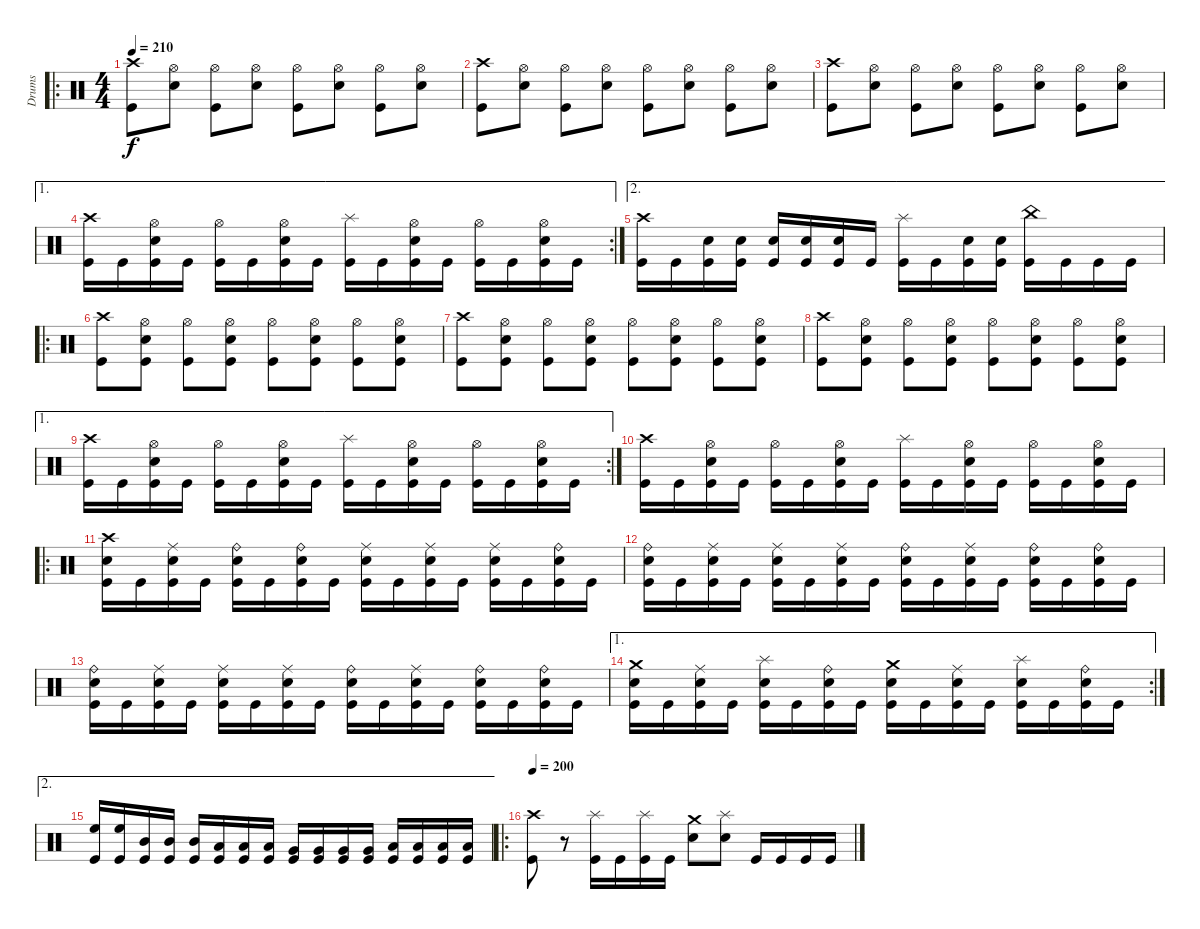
\track ("Drums" "Drums") {instrument percussion}
\staff {score}
\articulation defaults
\ro
\ts (4 4)
\tempo 210
\clef neutral
\ks c
("Crash high (hit)" "Kick (hit)").8{dy f} ("Hi-Hat (open)" "Electric Snare (hit)").8 ("Hi-Hat (open)" "Kick (hit)").8 ("Hi-Hat (open)" "Electric Snare (hit)").8 ("Hi-Hat (open)" "Kick (hit)").8 ("Hi-Hat (open)" "Electric Snare (hit)").8 ("Hi-Hat (open)" "Kick (hit)").8 ("Hi-Hat (open)" "Electric Snare (hit)").8 |
("Crash high (hit)" "Kick (hit)").8 ("Hi-Hat (open)" "Electric Snare (hit)").8 ("Hi-Hat (open)" "Kick (hit)").8 ("Hi-Hat (open)" "Electric Snare (hit)").8 ("Hi-Hat (open)" "Kick (hit)").8 ("Hi-Hat (open)" "Electric Snare (hit)").8 ("Hi-Hat (open)" "Kick (hit)").8 ("Hi-Hat (open)" "Electric Snare (hit)").8 |
("Crash high (hit)" "Kick (hit)").8 ("Hi-Hat (open)" "Electric Snare (hit)").8 ("Hi-Hat (open)" "Kick (hit)").8 ("Hi-Hat (open)" "Electric Snare (hit)").8 ("Hi-Hat (open)" "Kick (hit)").8 ("Hi-Hat (open)" "Electric Snare (hit)").8 ("Hi-Hat (open)" "Kick (hit)").8 ("Hi-Hat (open)" "Electric Snare (hit)").8 |
\ae 1
\rc 2
("Crash high (hit)" "Kick (hit)").16 "Kick (hit)".16 ("Hi-Hat (open)" "Electric Snare (hit)" "Kick (hit)").16 "Kick (hit)".16 ("Hi-Hat (open)" "Kick (hit)").16 "Kick (hit)".16 ("Hi-Hat (open)" "Electric Snare (hit)" "Kick (hit)").16 "Kick (hit)".16 ("Splash (hit)" "Kick (hit)").16 "Kick (hit)".16 ("Hi-Hat (open)" "Electric Snare (hit)" "Kick (hit)").16 "Kick (hit)".16 ("Hi-Hat (open)" "Kick (hit)").16 "Kick (hit)".16 ("Hi-Hat (open)" "Electric Snare (hit)" "Kick (hit)").16 "Kick (hit)".16 |
\ae 2
("Crash high (hit)" "Kick (hit)").16 "Kick (hit)".16 ("Electric Snare (hit)" "Kick (hit)").16 ("Electric Snare (hit)" "Kick (hit)").16 ("Electric Snare (hit)" "Kick (hit)").16 ("Electric Snare (hit)" "Kick (hit)").16 ("Electric Snare (hit)" "Kick (hit)").16 "Kick (hit)".16 ("Splash (hit)" "Kick (hit)").16 "Kick (hit)".16 ("Electric Snare (hit)" "Kick (hit)").16 ("Electric Snare (hit)" "Kick (hit)").16 ("China (hit)" "Kick (hit)").16 "Kick (hit)".16 "Kick (hit)".16 "Kick (hit)".16 |
\ro
("Crash high (hit)" "Kick (hit)").8 ("Hi-Hat (open)" "Electric Snare (hit)" "Kick (hit)").8 ("Hi-Hat (open)" "Kick (hit)").8 ("Hi-Hat (open)" "Electric Snare (hit)" "Kick (hit)").8 ("Hi-Hat (open)" "Kick (hit)").8 ("Hi-Hat (open)" "Electric Snare (hit)" "Kick (hit)").8 ("Hi-Hat (open)" "Kick (hit)").8 ("Hi-Hat (open)" "Electric Snare (hit)" "Kick (hit)").8 |
("Crash high (hit)" "Kick (hit)").8 ("Hi-Hat (open)" "Electric Snare (hit)" "Kick (hit)").8 ("Hi-Hat (open)" "Kick (hit)").8 ("Hi-Hat (open)" "Electric Snare (hit)" "Kick (hit)").8 ("Hi-Hat (open)" "Kick (hit)").8 ("Hi-Hat (open)" "Electric Snare (hit)" "Kick (hit)").8 ("Hi-Hat (open)" "Kick (hit)").8 ("Hi-Hat (open)" "Electric Snare (hit)" "Kick (hit)").8 |
("Crash high (hit)" "Kick (hit)").8 ("Hi-Hat (open)" "Electric Snare (hit)" "Kick (hit)").8 ("Hi-Hat (open)" "Kick (hit)").8 ("Hi-Hat (open)" "Electric Snare (hit)" "Kick (hit)").8 ("Hi-Hat (open)" "Kick (hit)").8 ("Hi-Hat (open)" "Electric Snare (hit)" "Kick (hit)").8 ("Hi-Hat (open)" "Kick (hit)").8 ("Hi-Hat (open)" "Electric Snare (hit)" "Kick (hit)").8 |
\ae 1
\rc 2
("Crash high (hit)" "Kick (hit)").16 "Kick (hit)".16 ("Hi-Hat (open)" "Electric Snare (hit)" "Kick (hit)").16 "Kick (hit)".16 ("Hi-Hat (open)" "Kick (hit)").16 "Kick (hit)".16 ("Hi-Hat (open)" "Electric Snare (hit)" "Kick (hit)").16 "Kick (hit)".16 ("Splash (hit)" "Kick (hit)").16 "Kick (hit)".16 ("Hi-Hat (open)" "Electric Snare (hit)" "Kick (hit)").16 "Kick (hit)".16 ("Hi-Hat (open)" "Kick (hit)").16 "Kick (hit)".16 ("Hi-Hat (open)" "Electric Snare (hit)" "Kick (hit)").16 "Kick (hit)".16 |
("Crash high (hit)" "Kick (hit)").16 "Kick (hit)".16 ("Hi-Hat (open)" "Electric Snare (hit)" "Kick (hit)").16 "Kick (hit)".16 ("Hi-Hat (open)" "Kick (hit)").16 "Kick (hit)".16 ("Hi-Hat (open)" "Electric Snare (hit)" "Kick (hit)").16 "Kick (hit)".16 ("Splash (hit)" "Kick (hit)").16 "Kick (hit)".16 ("Hi-Hat (open)" "Electric Snare (hit)" "Kick (hit)").16 "Kick (hit)".16 ("Hi-Hat (open)" "Kick (hit)").16 "Kick (hit)".16 ("Hi-Hat (open)" "Electric Snare (hit)" "Kick (hit)").16 "Kick (hit)".16 |
\ro
("Crash high (hit)" "Electric Snare (hit)" "Kick (hit)").16 "Kick (hit)".16 ("Ride (middle)" "Electric Snare (hit)" "Kick (hit)").16 "Kick (hit)".16 ("Ride (bell)" "Electric Snare (hit)" "Kick (hit)").16 "Kick (hit)".16 ("Ride (bell)" "Electric Snare (hit)" "Kick (hit)").16 "Kick (hit)".16 ("Ride (middle)" "Electric Snare (hit)" "Kick (hit)").16 "Kick (hit)".16 ("Ride (middle)" "Electric Snare (hit)" "Kick (hit)").16 "Kick (hit)".16 ("Ride (middle)" "Electric Snare (hit)" "Kick (hit)").16 "Kick (hit)".16 ("Ride (bell)" "Electric Snare (hit)" "Kick (hit)").16 "Kick (hit)".16 |
("Ride (bell)" "Electric Snare (hit)" "Kick (hit)").16 "Kick (hit)".16 ("Ride (middle)" "Electric Snare (hit)" "Kick (hit)").16 "Kick (hit)".16 ("Ride (middle)" "Electric Snare (hit)" "Kick (hit)").16 "Kick (hit)".16 ("Ride (middle)" "Electric Snare (hit)" "Kick (hit)").16 "Kick (hit)".16 ("Ride (bell)" "Electric Snare (hit)" "Kick (hit)").16 "Kick (hit)".16 ("Ride (middle)" "Electric Snare (hit)" "Kick (hit)").16 "Kick (hit)".16 ("Ride (bell)" "Electric Snare (hit)" "Kick (hit)").16 "Kick (hit)".16 ("Ride (bell)" "Electric Snare (hit)" "Kick (hit)").16 "Kick (hit)".16 |
("Ride (bell)" "Electric Snare (hit)" "Kick (hit)").16 "Kick (hit)".16 ("Ride (middle)" "Electric Snare (hit)" "Kick (hit)").16 "Kick (hit)".16 ("Ride (middle)" "Electric Snare (hit)" "Kick (hit)").16 "Kick (hit)".16 ("Ride (middle)" "Electric Snare (hit)" "Kick (hit)").16 "Kick (hit)".16 ("Ride (bell)" "Electric Snare (hit)" "Kick (hit)").16 "Kick (hit)".16 ("Ride (middle)" "Electric Snare (hit)" "Kick (hit)").16 "Kick (hit)".16 ("Ride (bell)" "Electric Snare (hit)" "Kick (hit)").16 "Kick (hit)".16 ("Ride (bell)" "Electric Snare (hit)" "Kick (hit)").16 "Kick (hit)".16 |
\ae 1
\rc 2
("Crash medium (hit)" "Electric Snare (hit)" "Kick (hit)").16 "Kick (hit)".16 ("Ride (middle)" "Electric Snare (hit)" "Kick (hit)").16 "Kick (hit)".16 ("Splash (hit)" "Electric Snare (hit)" "Kick (hit)").16 "Kick (hit)".16 ("Ride (bell)" "Electric Snare (hit)" "Kick (hit)").16 "Kick (hit)".16 ("Crash medium (hit)" "Electric Snare (hit)" "Kick (hit)").16 "Kick (hit)".16 ("Ride (middle)" "Electric Snare (hit)" "Kick (hit)").16 "Kick (hit)".16 ("Splash (hit)" "Electric Snare (hit)" "Kick (hit)").16 "Kick (hit)".16 ("Ride (bell)" "Electric Snare (hit)" "Kick (hit)").16 "Kick (hit)".16 |
\ae 2
("High Floor Tom (hit)" "Kick (hit)").16 ("High Floor Tom (hit)" "Kick (hit)").16 ("Mid Tom (hit)" "Kick (hit)").16 ("Mid Tom (hit)" "Kick (hit)").16 ("Mid Tom (hit)" "Kick (hit)").16 ("Low Tom (hit)" "Kick (hit)").16 ("Low Tom (hit)" "Kick (hit)").16 ("Low Tom (hit)" "Kick (hit)").16 ("Very Low Tom (hit)" "Kick (hit)").16 ("Very Low Tom (hit)" "Kick (hit)").16 ("Very Low Tom (hit)" "Kick (hit)").16 ("Very Low Tom (hit)" "Kick (hit)").16 ("Low Floor Tom (hit)" "Kick (hit)").16 ("Low Floor Tom (hit)" "Kick (hit)").16 ("Low Floor Tom (hit)" "Kick (hit)").16 ("Low Floor Tom (hit)" "Kick (hit)").16 |
\ro
\tempo 200
("Crash high (hit)" "Kick (hit)").8 r.8 ("Splash (hit)" "Kick (hit)").16 "Kick (hit)".16 ("Splash (hit)" "Kick (hit)").16 "Kick (hit)".16 ("Crash medium (hit)" "Electric Snare (hit)").8 ("Splash (hit)" "Electric Snare (hit)").8 "Kick (hit)".16 "Kick (hit)".16 "Kick (hit)".16 "Kick (hit)".16
